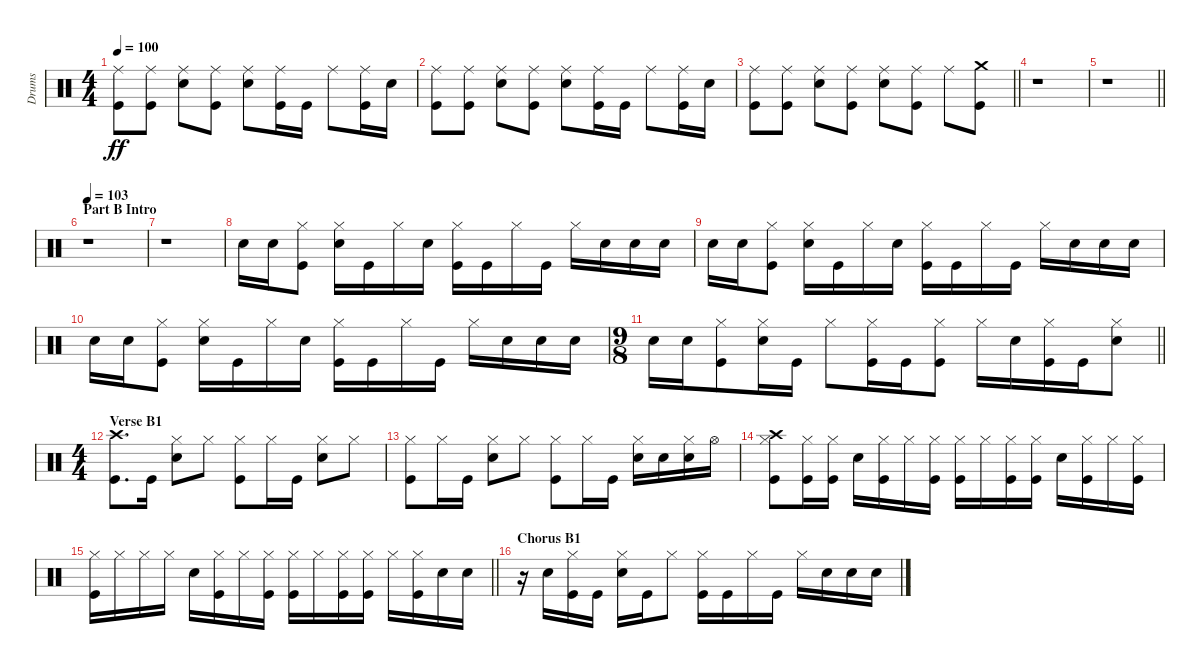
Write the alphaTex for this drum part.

\track ("Drums" "Drums") {instrument percussion}
\staff {score}
\articulation defaults
\ts (4 4)
\tempo 100
\clef neutral
\ks c
("Ride (middle)" "Kick (hit)").8{dy ff} ("Ride (middle)" "Kick (hit)").8 ("Ride (middle)" "Electric Snare (hit)").8 ("Ride (middle)" "Kick (hit)").8 ("Ride (middle)" "Electric Snare (hit)").8 ("Ride (middle)" "Kick (hit)").16 "Kick (hit)".16 "Ride (middle)".8 ("Ride (middle)" "Kick (hit)").16 "Electric Snare (hit)".16 |
("Ride (middle)" "Kick (hit)").8 ("Ride (middle)" "Kick (hit)").8 ("Ride (middle)" "Electric Snare (hit)").8 ("Ride (middle)" "Kick (hit)").8 ("Ride (middle)" "Electric Snare (hit)").8 ("Ride (middle)" "Kick (hit)").16 "Kick (hit)".16 "Ride (middle)".8 ("Ride (middle)" "Kick (hit)").16 "Electric Snare (hit)".16 |
\barLineRight lightlight
("Ride (middle)" "Kick (hit)").8 ("Ride (middle)" "Kick (hit)").8 ("Ride (middle)" "Electric Snare (hit)").8 ("Ride (middle)" "Kick (hit)").8 ("Ride (middle)" "Electric Snare (hit)").8 ("Ride (middle)" "Kick (hit)").8 "Ride (middle)".8 ("Crash medium (hit)" "Kick (hit)").8 |
r.1 |
\barLineRight lightlight
r.1 |
\section ("" "Part B Intro")
\tempo 103
r.1 |
r.1 |
"Electric Snare (hit)".16 "Electric Snare (hit)".16 ("Hi-Hat (closed)" "Kick (hit)").8 ("Hi-Hat (closed)" "Electric Snare (hit)").16 "Kick (hit)".16 "Hi-Hat (closed)".16 "Electric Snare (hit)".16 ("Hi-Hat (closed)" "Kick (hit)").16 "Kick (hit)".16 "Hi-Hat (closed)".16 "Kick (hit)".16 "Hi-Hat (closed)".16 "Electric Snare (hit)".16 "Electric Snare (hit)".16 "Electric Snare (hit)".16 |
"Electric Snare (hit)".16 "Electric Snare (hit)".16 ("Hi-Hat (closed)" "Kick (hit)").8 ("Hi-Hat (closed)" "Electric Snare (hit)").16 "Kick (hit)".16 "Hi-Hat (closed)".16 "Electric Snare (hit)".16 ("Hi-Hat (closed)" "Kick (hit)").16 "Kick (hit)".16 "Hi-Hat (closed)".16 "Kick (hit)".16 "Hi-Hat (closed)".16 "Electric Snare (hit)".16 "Electric Snare (hit)".16 "Electric Snare (hit)".16 |
"Electric Snare (hit)".16 "Electric Snare (hit)".16 ("Hi-Hat (closed)" "Kick (hit)").8 ("Hi-Hat (closed)" "Electric Snare (hit)").16 "Kick (hit)".16 "Hi-Hat (closed)".16 "Electric Snare (hit)".16 ("Hi-Hat (closed)" "Kick (hit)").16 "Kick (hit)".16 "Hi-Hat (closed)".16 "Kick (hit)".16 "Hi-Hat (closed)".16 "Electric Snare (hit)".16 "Electric Snare (hit)".16 "Electric Snare (hit)".16 |
\ts (9 8)
\barLineRight lightlight "Electric Snare (hit)".16 "Electric Snare (hit)".16
("Hi-Hat (closed)" "Kick (hit)").8 ("Hi-Hat (closed)" "Electric Snare (hit)").16 "Kick (hit)".16 "Hi-Hat (closed)".8 ("Hi-Hat (closed)" "Kick (hit)").16 "Kick (hit)".16 ("Hi-Hat (closed)" "Kick (hit)").8 "Hi-Hat (closed)".16 "Electric Snare (hit)".16 ("Hi-Hat (closed)" "Kick (hit)").16 "Kick (hit)".16 ("Hi-Hat (closed)" "Electric Snare (hit)").8 |
\ts (4 4)
\section ("" "Verse B1")
("Crash high (hit)" "Kick (hit)").8{d} "Kick (hit)".16 ("Hi-Hat (closed)" "Electric Snare (hit)").8 "Hi-Hat (closed)".8 ("Hi-Hat (closed)" "Kick (hit)").8 "Hi-Hat (closed)".16 "Kick (hit)".16 ("Hi-Hat (closed)" "Electric Snare (hit)").8 "Hi-Hat (closed)".8 |
("Hi-Hat (closed)" "Kick (hit)").8 "Hi-Hat (closed)".16 "Kick (hit)".16 ("Hi-Hat (closed)" "Electric Snare (hit)").8 "Hi-Hat (closed)".8 ("Hi-Hat (closed)" "Kick (hit)").8 "Hi-Hat (closed)".16 "Kick (hit)".16 ("Hi-Hat (closed)" "Electric Snare (hit)").16 "Electric Snare (hit)".16 ("Hi-Hat (closed)" "Electric Snare (hit)").16 "Hi-Hat (open)".16 |
("Hi-Hat (closed)" "Crash high (hit)" "Kick (hit)").8 ("Hi-Hat (closed)" "Kick (hit)").16 ("Hi-Hat (closed)" "Kick (hit)").16 "Electric Snare (hit)".16 ("Hi-Hat (closed)" "Kick (hit)").16 "Hi-Hat (closed)".16 ("Hi-Hat (closed)" "Kick (hit)").16 ("Hi-Hat (closed)" "Kick (hit)").16 "Hi-Hat (closed)".16 ("Hi-Hat (closed)" "Kick (hit)").16 ("Hi-Hat (closed)" "Kick (hit)").16 "Electric Snare (hit)".16 ("Hi-Hat (closed)" "Kick (hit)").16 "Hi-Hat (closed)".16 ("Hi-Hat (closed)" "Kick (hit)").16 |
\barLineRight lightlight
("Hi-Hat (closed)" "Kick (hit)").16 "Hi-Hat (closed)".16 "Hi-Hat (closed)".16 "Hi-Hat (closed)".16 "Electric Snare (hit)".16 ("Hi-Hat (closed)" "Kick (hit)").16 "Hi-Hat (closed)".16 ("Hi-Hat (closed)" "Kick (hit)").16 ("Hi-Hat (closed)" "Kick (hit)").16 "Hi-Hat (closed)".16 ("Hi-Hat (closed)" "Kick (hit)").16 ("Hi-Hat (closed)" "Kick (hit)").16 "Hi-Hat (closed)".16 ("Hi-Hat (closed)" "Kick (hit)").16 "Electric Snare (hit)".16 "Electric Snare (hit)".16 |
\section ("" "Chorus B1")
r.16 "Electric Snare (hit)".16 ("Hi-Hat (closed)" "Kick (hit)").16 "Kick (hit)".16 ("Hi-Hat (closed)" "Electric Snare (hit)").16 "Kick (hit)".16 "Hi-Hat (closed)".8 ("Hi-Hat (closed)" "Kick (hit)").16 "Kick (hit)".16 "Hi-Hat (closed)".16 "Kick (hit)".16 "Hi-Hat (closed)".16 "Electric Snare (hit)".16 "Electric Snare (hit)".16 "Electric Snare (hit)".16
